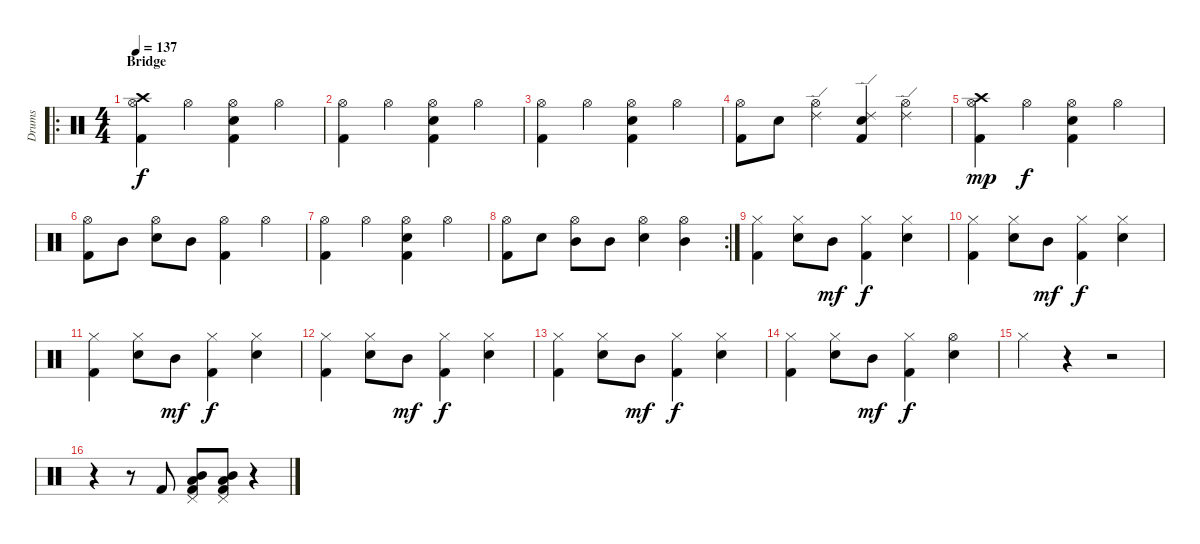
\track ("Drums" "Drums") {instrument percussion}
\staff {score}
\articulation defaults
\ro
\ts (4 4)
\section ("" "Bridge")
\tempo 137
\clef neutral
\ks c
("Crash high (hit)" "Hi-Hat (open)" "Kick (hit) 2").4{dy f} "Hi-Hat (open)".4 ("Hi-Hat (open)" "Electric Snare (hit)" "Kick (hit) 2").4 "Hi-Hat (open)".4 |
("Hi-Hat (open)" "Kick (hit) 2").4 "Hi-Hat (open)".4 ("Hi-Hat (open)" "Electric Snare (hit)" "Kick (hit) 2").4 "Hi-Hat (open)".4 |
("Hi-Hat (open)" "Kick (hit) 2").4 "Hi-Hat (open)".4 ("Hi-Hat (open)" "Electric Snare (hit)" "Kick (hit) 2").4 "Hi-Hat (open)".4 |
("Hi-Hat (open)" "Kick (hit) 2").8 "Electric Snare (hit)".8 ("Ride (edge) 2" "Hi-Hat (open)").4 ("Ride (edge) 2" "Electric Snare (hit)" "Kick (hit) 2").4 ("Ride (edge) 2" "Hi-Hat (open)").4 |
("Crash high (hit)" "Hi-Hat (open)" "Kick (hit) 2").4{dy mp} "Hi-Hat (open)".4{dy f} ("Hi-Hat (open)" "Electric Snare (hit)" "Kick (hit) 2").4 "Hi-Hat (open)".4 |
("Hi-Hat (open)" "Kick (hit) 2").8 "Mid Tom (hit)".8 ("Hi-Hat (open)" "Electric Snare (hit)").8 "Mid Tom (hit)".8 ("Hi-Hat (open)" "Kick (hit) 2").4 "Hi-Hat (open)".4 |
("Hi-Hat (open)" "Kick (hit) 2").4 "Hi-Hat (open)".4 ("Hi-Hat (open)" "Electric Snare (hit)" "Kick (hit) 2").4 "Hi-Hat (open)".4 |
\rc 2
("Hi-Hat (open)" "Kick (hit) 2").8 "Electric Snare (hit)".8 ("Hi-Hat (open)" "Mid Tom (hit)").8 "Mid Tom (hit)".8 ("Hi-Hat (open)" "Electric Snare (hit)").4 ("Hi-Hat (open)" "Mid Tom (hit)").4 |
("Hi-Hat (closed)" "Kick (hit) 2").4 ("Hi-Hat (closed)" "Electric Snare (hit)").8 "Mid Tom (hit)".8{dy mf} ("Hi-Hat (closed)" "Kick (hit) 2").4{dy f} ("Hi-Hat (closed)" "Electric Snare (hit)").4 |
("Hi-Hat (closed)" "Kick (hit) 2").4 ("Hi-Hat (closed)" "Electric Snare (hit)").8 "Mid Tom (hit)".8{dy mf} ("Hi-Hat (closed)" "Kick (hit) 2").4{dy f} ("Hi-Hat (closed)" "Electric Snare (hit)").4 |
("Hi-Hat (closed)" "Kick (hit) 2").4 ("Hi-Hat (closed)" "Electric Snare (hit)").8 "Mid Tom (hit)".8{dy mf} ("Hi-Hat (closed)" "Kick (hit) 2").4{dy f} ("Hi-Hat (closed)" "Electric Snare (hit)").4 |
("Hi-Hat (closed)" "Kick (hit) 2").4 ("Hi-Hat (closed)" "Electric Snare (hit)").8 "Mid Tom (hit)".8{dy mf} ("Hi-Hat (closed)" "Kick (hit) 2").4{dy f} ("Hi-Hat (closed)" "Electric Snare (hit)").4 |
("Hi-Hat (closed)" "Kick (hit) 2").4 ("Hi-Hat (closed)" "Electric Snare (hit)").8 "Mid Tom (hit)".8{dy mf} ("Hi-Hat (closed)" "Kick (hit) 2").4{dy f} ("Hi-Hat (closed)" "Electric Snare (hit)").4 |
("Hi-Hat (closed)" "Kick (hit) 2").4 ("Hi-Hat (closed)" "Electric Snare (hit)").8 "Mid Tom (hit)".8{dy mf} ("Hi-Hat (closed)" "Kick (hit) 2").4{dy f} ("Hi-Hat (open)" "Electric Snare (hit)").4 |
"Hi-Hat (closed)".4 r.4 r.2 |
r.4 r.8 "Kick (hit) 2".8 ("Pedal Hi-Hat (hit)" "Low Tom (hit)" "Mid Tom (hit)" "Kick (hit) 2").8 ("Pedal Hi-Hat (hit)" "Low Tom (hit)" "Mid Tom (hit)" "Kick (hit) 2").8 r.4
